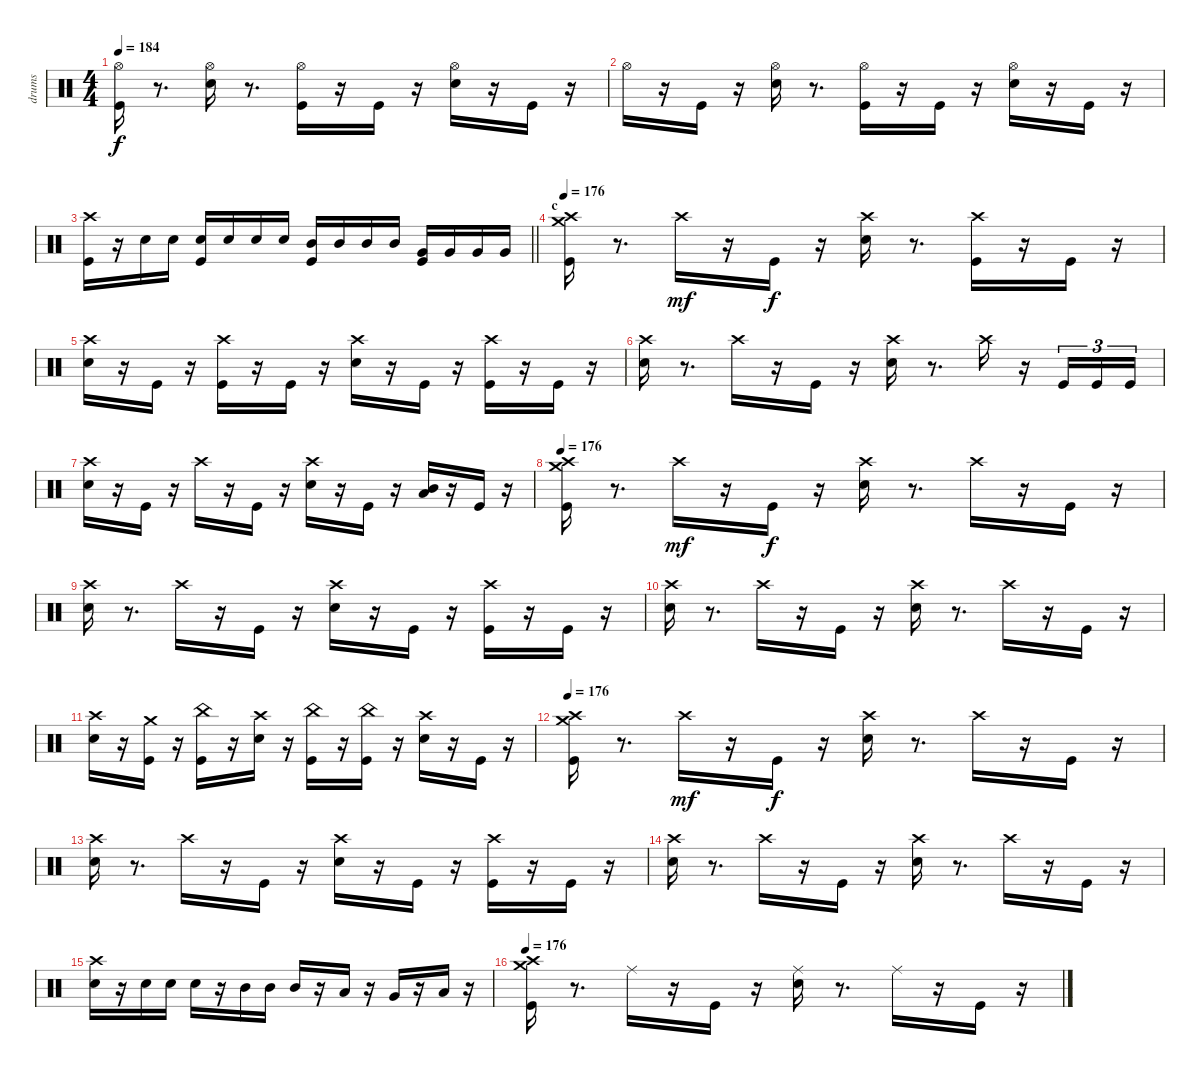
\track ("drums" "drums") {instrument percussion}
\staff {score}
\articulation defaults
\ts (4 4)
\tempo 184
\clef neutral
\ks c
("Kick (hit)" "Hi-Hat (open)").16{dy f} r.8{d} ("Snare (hit) 2" "Hi-Hat (open)").16 r.8{d} ("Kick (hit)" "Hi-Hat (open)").16 r.16 "Kick (hit)".16 r.16 ("Snare (hit) 2" "Hi-Hat (open)").16 r.16 "Kick (hit)".16 r.16 |
"Hi-Hat (open)".16 r.16 "Kick (hit)".16 r.16 ("Snare (hit) 2" "Hi-Hat (open)").16 r.8{d} ("Kick (hit)" "Hi-Hat (open)").16 r.16 "Kick (hit)".16 r.16 ("Snare (hit) 2" "Hi-Hat (open)").16 r.16 "Kick (hit)".16 r.16 |
\barLineRight lightlight
("Kick (hit)" "Crash high (hit)").16 r.16 "Snare (hit) 2".16 "Snare (hit) 2".16 ("Kick (hit)" "Snare (hit) 2").16 "Snare (hit) 2".16 "Snare (hit) 2".16 "Snare (hit) 2".16 ("Kick (hit)" "Mid Tom (hit)").16 "Mid Tom (hit)".16 "Mid Tom (hit)".16 "Mid Tom (hit)".16 ("Kick (hit)" "Very Low Tom (hit)").16 "Very Low Tom (hit)".16 "Very Low Tom (hit)".16 "Very Low Tom (hit)".16 |
\section ("" "c")
\tempo 176
("Kick (hit)" "Crash high (hit)" "Crash medium (hit)").16 r.8{d} "Crash high (hit)".16{dy mf} r.16 "Kick (hit)".16{dy f} r.16 ("Snare (hit) 2" "Crash high (hit)").16 r.8{d} ("Kick (hit)" "Crash high (hit)").16 r.16 "Kick (hit)".16 r.16 |
("Snare (hit) 2" "Crash high (hit)").16 r.16 "Kick (hit)".16 r.16 ("Kick (hit)" "Crash high (hit)").16 r.16 "Kick (hit)".16 r.16 ("Snare (hit) 2" "Crash high (hit)").16 r.16 "Kick (hit)".16 r.16 ("Kick (hit)" "Crash high (hit)").16 r.16 "Kick (hit)".16 r.16 |
("Snare (hit) 2" "Crash high (hit)").16 r.8{d} "Crash high (hit)".16 r.16 "Kick (hit)".16 r.16 ("Snare (hit) 2" "Crash high (hit)").16 r.8{d} "Crash high (hit)".16 r.16 "Kick (hit)".16{tu (3 2)} "Kick (hit)".16{tu (3 2)} "Kick (hit)".16{tu (3 2)} |
("Snare (hit) 2" "Crash high (hit)").16 r.16 "Kick (hit)".16 r.16 "Crash high (hit)".16 r.16 "Kick (hit)".16 r.16 ("Snare (hit) 2" "Crash high (hit)").16 r.16 "Kick (hit)".16 r.16 ("Low Tom (hit)" "Mid Tom (hit)").16 r.16 "Kick (hit)".16 r.16 |
\tempo 176
("Kick (hit)" "Crash high (hit)" "Crash medium (hit)").16 r.8{d} "Crash high (hit)".16{dy mf} r.16 "Kick (hit)".16{dy f} r.16 ("Snare (hit) 2" "Crash high (hit)").16 r.8{d} "Crash high (hit)".16 r.16 "Kick (hit)".16 r.16 |
("Snare (hit) 2" "Crash high (hit)").16 r.8{d} "Crash high (hit)".16 r.16 "Kick (hit)".16 r.16 ("Snare (hit) 2" "Crash high (hit)").16 r.16 "Kick (hit)".16 r.16 ("Kick (hit)" "Crash high (hit)").16 r.16 "Kick (hit)".16 r.16 |
("Snare (hit) 2" "Crash high (hit)").16 r.8{d} "Crash high (hit)".16 r.16 "Kick (hit)".16 r.16 ("Snare (hit) 2" "Crash high (hit)").16 r.8{d} "Crash high (hit)".16 r.16 "Kick (hit)".16 r.16 |
("Snare (hit) 2" "Crash high (hit)").16 r.16 ("Kick (hit)" "Crash medium (hit)").16 r.16 ("Kick (hit)" "China (hit)").16 r.16 ("Snare (hit) 2" "Crash high (hit)").16 r.16 ("Kick (hit)" "China (hit)").16 r.16 ("Kick (hit)" "China (hit)").16 r.16 ("Snare (hit) 2" "Crash high (hit)").16 r.16 "Kick (hit)".16 r.16 |
\tempo 176
("Kick (hit)" "Crash high (hit)" "Crash medium (hit)").16 r.8{d} "Crash high (hit)".16{dy mf} r.16 "Kick (hit)".16{dy f} r.16 ("Snare (hit) 2" "Crash high (hit)").16 r.8{d} "Crash high (hit)".16 r.16 "Kick (hit)".16 r.16 |
("Snare (hit) 2" "Crash high (hit)").16 r.8{d} "Crash high (hit)".16 r.16 "Kick (hit)".16 r.16 ("Snare (hit) 2" "Crash high (hit)").16 r.16 "Kick (hit)".16 r.16 ("Kick (hit)" "Crash high (hit)").16 r.16 "Kick (hit)".16 r.16 |
("Snare (hit) 2" "Crash high (hit)").16 r.8{d} "Crash high (hit)".16 r.16 "Kick (hit)".16 r.16 ("Snare (hit) 2" "Crash high (hit)").16 r.8{d} "Crash high (hit)".16 r.16 "Kick (hit)".16 r.16 |
("Snare (hit) 2" "Crash high (hit)").16 r.16 "Snare (hit) 2".16 "Snare (hit) 2".16 "Snare (hit) 2".16 r.16 "Mid Tom (hit)".16 "Mid Tom (hit)".16 "Mid Tom (hit)".16 r.16 "Low Tom (hit)".16 r.16 "Very Low Tom (hit)".16 r.16 "Low Floor Tom (hit)".16 r.16 |
\tempo 176
("Kick (hit)" "Crash high (hit)" "Crash medium (hit)").16 r.8{d} "Ride (middle)".16 r.16 "Kick (hit)".16 r.16 ("Snare (hit) 2" "Ride (middle)").16 r.8{d} "Ride (middle)".16 r.16 "Kick (hit)".16 r.16
